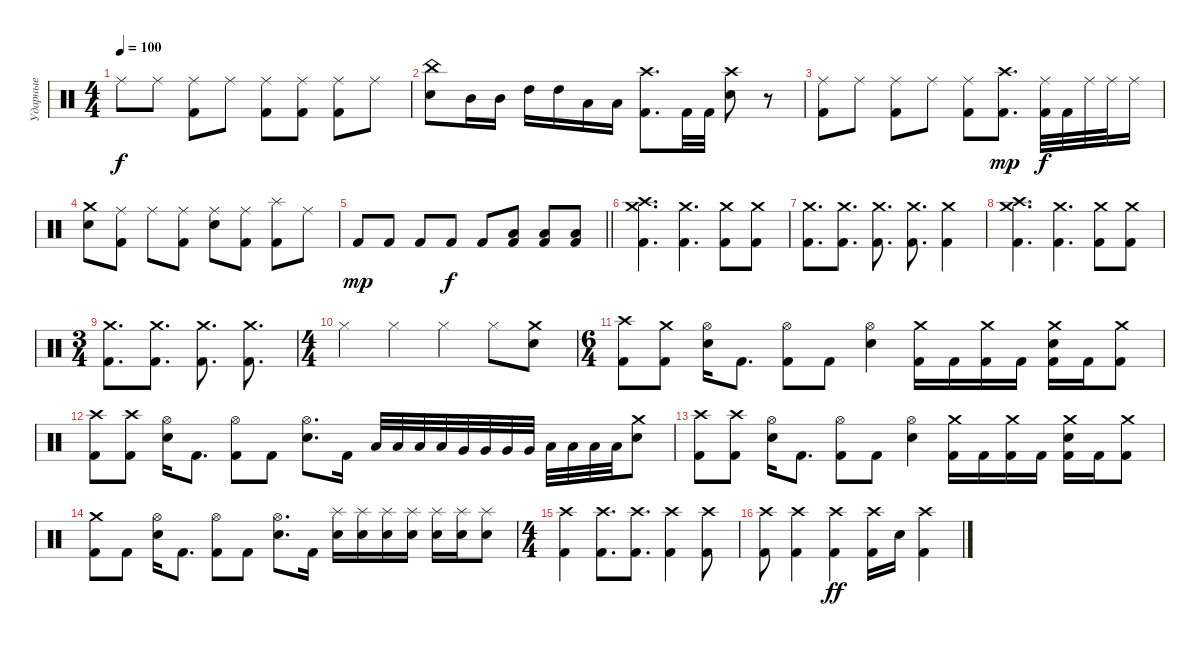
\track ("Ударные" "Ударные") {instrument percussion}
\staff {score}
\articulation defaults
\ts (4 4)
\tempo 100
\clef neutral
\ks c "Ride (middle)".8{dy f} "Ride (middle)".8
("Ride (middle)" "Kick (hit) 2").8 "Ride (middle)".8 ("Ride (middle)" "Kick (hit) 2").8 ("Ride (middle)" "Kick (hit) 2").8 ("Ride (middle)" "Kick (hit) 2").8 "Ride (middle)".8 |
("China (hit)" "Electric Snare (hit)").8 "Mid Tom (hit)".16 "Mid Tom (hit)".16 "High Tom (hit)".16 "High Tom (hit)".16 "Low Tom (hit)".16 "Low Tom (hit)".16 ("Crash high (hit)" "Kick (hit) 2").8{d} "Kick (hit) 2".32 "Kick (hit) 2".32 ("Crash high (hit)" "Electric Snare (hit)").8 r.8 |
("Ride (middle)" "Kick (hit) 2").8 "Ride (middle)".8 ("Ride (middle)" "Kick (hit) 2").8 "Ride (middle)".8 ("Ride (middle)" "Kick (hit) 2").8 ("Crash high (hit)" "Kick (hit) 2").8{d dy mp} ("Ride (middle)" "Kick (hit) 2").32{dy f} "Kick (hit) 2".32 "Ride (middle)".32 "Ride (middle)".32 "Ride (middle)".16 |
("Crash medium (hit)" "Electric Snare (hit)").8 ("Ride (middle)" "Kick (hit) 2").8 "Ride (middle)".8 ("Ride (middle)" "Kick (hit) 2").8 ("Ride (middle)" "Electric Snare (hit)").8 ("Ride (middle)" "Kick (hit) 2").8 ("Splash (hit)" "Kick (hit) 2").8 "Ride (middle)".8 |
\barLineRight lightlight "Kick (hit) 2".8{dy mp} "Kick (hit) 2".8 "Kick (hit) 2".8 "Kick (hit) 2".8{dy f} "Kick (hit) 2".8
("Low Tom (hit)" "Kick (hit) 2").8 ("Low Tom (hit)" "Kick (hit) 2").8 ("Low Tom (hit)" "Kick (hit) 2").8 |
("Crash medium (hit)" "Crash high (hit)" "Kick (hit) 2").4{d} ("Crash medium (hit)" "Kick (hit) 2").4{d} ("Crash medium (hit)" "Kick (hit) 2").8 ("Crash medium (hit)" "Kick (hit) 2").8 |
("Crash medium (hit)" "Kick (hit) 2").8{d} ("Crash medium (hit)" "Kick (hit) 2").8{d} ("Crash medium (hit)" "Kick (hit) 2").8{d} ("Crash medium (hit)" "Kick (hit) 2").8{d} ("Crash medium (hit)" "Kick (hit) 2").4 |
("Crash medium (hit)" "Crash high (hit)" "Kick (hit) 2").4{d} ("Crash medium (hit)" "Kick (hit) 2").4{d} ("Crash medium (hit)" "Kick (hit) 2").8 ("Crash medium (hit)" "Kick (hit) 2").8 |
\ts (3 4)
("Crash medium (hit)" "Kick (hit) 2").8{d} ("Crash medium (hit)" "Kick (hit) 2").8{d} ("Crash medium (hit)" "Kick (hit) 2").8{d} ("Crash medium (hit)" "Kick (hit) 2").8{d} |
\ts (4 4)
"Hi-Hat (closed)".4 "Hi-Hat (closed)".4 "Hi-Hat (closed)".4 "Hi-Hat (closed)".8 ("Crash medium (hit)" "Electric Snare (hit)").8 |
\ts (6 4)
("Crash high (hit)" "Kick (hit) 2").8 ("Crash medium (hit)" "Kick (hit) 2").8 ("Hi-Hat (open)" "Electric Snare (hit)").16 "Kick (hit) 2".8{d} ("Hi-Hat (open)" "Kick (hit) 2").8 "Kick (hit) 2".8 ("Hi-Hat (open)" "Electric Snare (hit)").4 ("Crash medium (hit)" "Kick (hit) 2").16 "Kick (hit) 2".16 ("Crash medium (hit)" "Kick (hit) 2").16 "Kick (hit) 2".16 ("Crash medium (hit)" "Electric Snare (hit)" "Kick (hit) 2").16 "Kick (hit) 2".16 ("Crash medium (hit)" "Kick (hit) 2").8 |
("Crash high (hit)" "Kick (hit) 2").8 ("Crash high (hit)" "Kick (hit) 2").8 ("Hi-Hat (open)" "Electric Snare (hit)").16 "Kick (hit) 2".8{d} ("Hi-Hat (open)" "Kick (hit) 2").8 "Kick (hit) 2".8 ("Hi-Hat (open)" "Electric Snare (hit)").8{d} "Kick (hit) 2".16 "Low Tom (hit)".32 "Low Tom (hit)".32 "Low Tom (hit)".32 "Low Tom (hit)".32 "Very Low Tom (hit)".32 "Very Low Tom (hit)".32 "Very Low Tom (hit)".32 "Very Low Tom (hit)".32 "Low Floor Tom (hit)".32 "Low Floor Tom (hit)".32 "Low Floor Tom (hit)".32 "Low Floor Tom (hit)".32 ("Crash medium (hit)" "Electric Snare (hit)").8 |
("Crash high (hit)" "Kick (hit) 2").8 ("Crash high (hit)" "Kick (hit) 2").8 ("Hi-Hat (open)" "Electric Snare (hit)").16 "Kick (hit) 2".8{d} ("Hi-Hat (open)" "Kick (hit) 2").8 "Kick (hit) 2".8 ("Hi-Hat (open)" "Electric Snare (hit)").4 ("Crash medium (hit)" "Kick (hit) 2").16 "Kick (hit) 2".16 ("Crash medium (hit)" "Kick (hit) 2").16 "Kick (hit) 2".16 ("Crash medium (hit)" "Electric Snare (hit)" "Kick (hit) 2").16 "Kick (hit) 2".16 ("Crash medium (hit)" "Kick (hit) 2").8 |
("Crash medium (hit)" "Kick (hit) 2").8 "Kick (hit) 2".8 ("Hi-Hat (open)" "Electric Snare (hit)").16 "Kick (hit) 2".8{d} ("Hi-Hat (open)" "Kick (hit) 2").8 "Kick (hit) 2".8 ("Hi-Hat (open)" "Electric Snare (hit)").8{d} "Kick (hit) 2".16 ("Splash (hit)" "Electric Snare (hit)").16 ("Splash (hit)" "Electric Snare (hit)").16 ("Splash (hit)" "Electric Snare (hit)").16 ("Splash (hit)" "Electric Snare (hit)").16 ("Splash (hit)" "Electric Snare (hit)").16 ("Splash (hit)" "Electric Snare (hit)").16 ("Splash (hit)" "Electric Snare (hit)").8 |
\ts (4 4)
("Crash high (hit)" "Kick (hit) 2").4 ("Crash high (hit)" "Kick (hit) 2").8{d} ("Crash high (hit)" "Kick (hit) 2").8{d} ("Crash high (hit)" "Kick (hit) 2").4 ("Crash high (hit)" "Kick (hit) 2").8 |
("Crash high (hit)" "Kick (hit) 2").8 ("Crash high (hit)" "Kick (hit) 2").4 ("Crash high (hit)" "Kick (hit) 2").4{dy ff} ("Crash high (hit)" "Kick (hit) 2").16 "Snare (hit) 2".16 ("Crash high (hit)" "Kick (hit) 2").4
